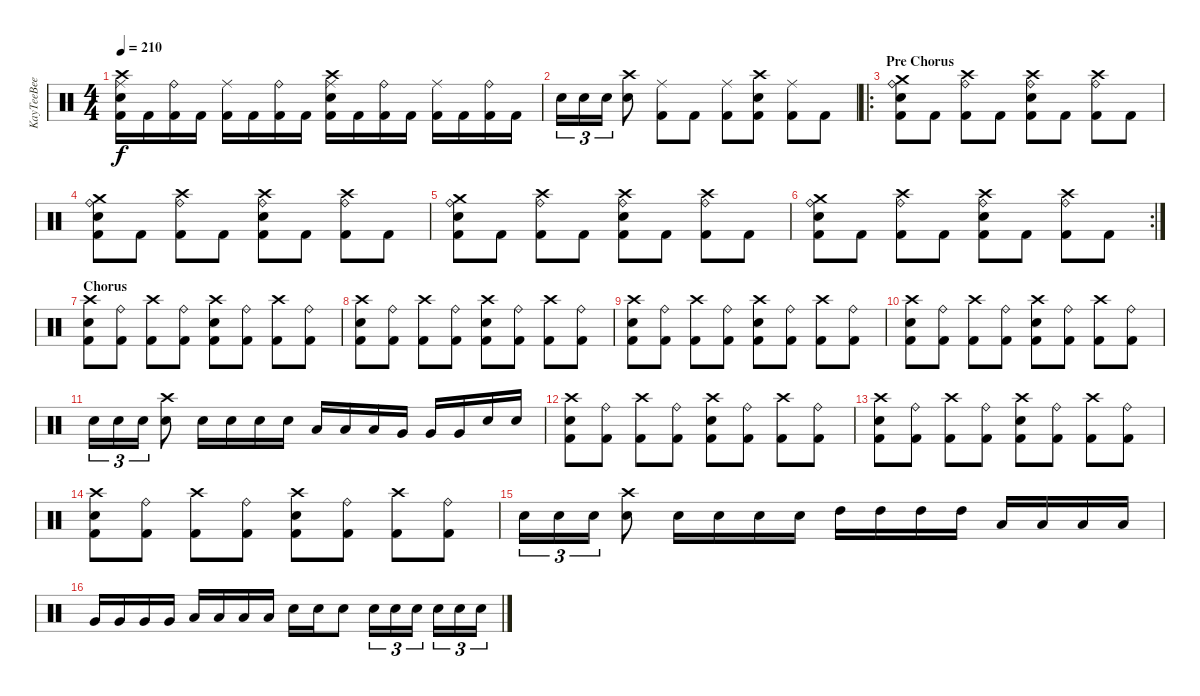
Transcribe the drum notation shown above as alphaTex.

\track ("KayTeeBee" "KayTeeBee") {instrument percussion}
\staff {score}
\articulation defaults
\ts (4 4)
\tempo 210
\clef neutral
\ks c
("Kick (hit) 2" "Electric Snare (hit)" "Crash high (hit)" "Ride (middle)").16{dy f} "Kick (hit) 2".16 ("Kick (hit) 2" "Ride (bell)").16 "Kick (hit) 2".16 ("Kick (hit) 2" "Ride (middle)").16 "Kick (hit) 2".16 ("Kick (hit) 2" "Ride (bell)").16 "Kick (hit) 2".16 ("Kick (hit) 2" "Electric Snare (hit)" "Crash high (hit)" "Ride (middle)").16 "Kick (hit) 2".16 ("Kick (hit) 2" "Ride (bell)").16 "Kick (hit) 2".16 ("Kick (hit) 2" "Ride (middle)").16 "Kick (hit) 2".16 ("Kick (hit) 2" "Ride (bell)").16 "Kick (hit) 2".16 |
"Electric Snare (hit)".16{tu (3 2)} "Electric Snare (hit)".16{tu (3 2)} "Electric Snare (hit)".16{tu (3 2)} ("Crash high (hit)" "Electric Snare (hit)").8 ("Kick (hit) 2" "Ride (middle)").8 "Kick (hit) 2".8 ("Kick (hit) 2" "Ride (middle)").8 ("Kick (hit) 2" "Crash high (hit)" "Electric Snare (hit)").8 ("Kick (hit) 2" "Ride (middle)").8 "Kick (hit) 2".8 |
\ro
\section ("" "Pre Chorus")
("Kick (hit) 2" "Electric Snare (hit)" "Ride (bell)" "Crash medium (hit)").8 "Kick (hit) 2".8 ("Kick (hit) 2" "Crash high (hit)" "Ride (bell)").8 "Kick (hit) 2".8 ("Kick (hit) 2" "Crash high (hit)" "Ride (bell)" "Electric Snare (hit)").8 "Kick (hit) 2".8 ("Kick (hit) 2" "Crash high (hit)" "Ride (bell)").8 "Kick (hit) 2".8 |
("Kick (hit) 2" "Electric Snare (hit)" "Ride (bell)" "Crash medium (hit)").8 "Kick (hit) 2".8 ("Kick (hit) 2" "Crash high (hit)" "Ride (bell)").8 "Kick (hit) 2".8 ("Kick (hit) 2" "Crash high (hit)" "Ride (bell)" "Electric Snare (hit)").8 "Kick (hit) 2".8 ("Kick (hit) 2" "Crash high (hit)" "Ride (bell)").8 "Kick (hit) 2".8 |
("Kick (hit) 2" "Electric Snare (hit)" "Ride (bell)" "Crash medium (hit)").8 "Kick (hit) 2".8 ("Kick (hit) 2" "Crash high (hit)" "Ride (bell)").8 "Kick (hit) 2".8 ("Kick (hit) 2" "Crash high (hit)" "Ride (bell)" "Electric Snare (hit)").8 "Kick (hit) 2".8 ("Kick (hit) 2" "Crash high (hit)" "Ride (bell)").8 "Kick (hit) 2".8 |
\rc 2
("Kick (hit) 2" "Electric Snare (hit)" "Ride (bell)" "Crash medium (hit)").8 "Kick (hit) 2".8 ("Kick (hit) 2" "Crash high (hit)" "Ride (bell)").8 "Kick (hit) 2".8 ("Kick (hit) 2" "Crash high (hit)" "Ride (bell)" "Electric Snare (hit)").8 "Kick (hit) 2".8 ("Kick (hit) 2" "Crash high (hit)" "Ride (bell)").8 "Kick (hit) 2".8 |
\section ("" "Chorus")
("Kick (hit) 2" "Electric Snare (hit)" "Crash high (hit)").8 ("Kick (hit) 2" "Ride (bell)").8 ("Kick (hit) 2" "Crash high (hit)").8 ("Kick (hit) 2" "Ride (bell)").8 ("Kick (hit) 2" "Crash high (hit)" "Electric Snare (hit)").8 ("Kick (hit) 2" "Ride (bell)").8 ("Kick (hit) 2" "Crash high (hit)").8 ("Kick (hit) 2" "Ride (bell)").8 |
("Kick (hit) 2" "Electric Snare (hit)" "Crash high (hit)").8 ("Kick (hit) 2" "Ride (bell)").8 ("Kick (hit) 2" "Crash high (hit)").8 ("Kick (hit) 2" "Ride (bell)").8 ("Kick (hit) 2" "Crash high (hit)" "Electric Snare (hit)").8 ("Kick (hit) 2" "Ride (bell)").8 ("Kick (hit) 2" "Crash high (hit)").8 ("Kick (hit) 2" "Ride (bell)").8 |
("Kick (hit) 2" "Electric Snare (hit)" "Crash high (hit)").8 ("Kick (hit) 2" "Ride (bell)").8 ("Kick (hit) 2" "Crash high (hit)").8 ("Kick (hit) 2" "Ride (bell)").8 ("Kick (hit) 2" "Crash high (hit)" "Electric Snare (hit)").8 ("Kick (hit) 2" "Ride (bell)").8 ("Kick (hit) 2" "Crash high (hit)").8 ("Kick (hit) 2" "Ride (bell)").8 |
("Kick (hit) 2" "Electric Snare (hit)" "Crash high (hit)").8 ("Kick (hit) 2" "Ride (bell)").8 ("Kick (hit) 2" "Crash high (hit)").8 ("Kick (hit) 2" "Ride (bell)").8 ("Kick (hit) 2" "Crash high (hit)" "Electric Snare (hit)").8 ("Kick (hit) 2" "Ride (bell)").8 ("Kick (hit) 2" "Crash high (hit)").8 ("Kick (hit) 2" "Ride (bell)").8 |
"Electric Snare (hit)".16{tu (3 2)} "Electric Snare (hit)".16{tu (3 2)} "Electric Snare (hit)".16{tu (3 2)} ("Electric Snare (hit)" "Crash high (hit)").8 "Electric Snare (hit)".16 "Electric Snare (hit)".16 "Electric Snare (hit)".16 "Electric Snare (hit)".16 "Low Tom (hit)".16 "Low Tom (hit)".16 "Low Tom (hit)".16 "Very Low Tom (hit)".16 "Very Low Tom (hit)".16 "Very Low Tom (hit)".16 "Electric Snare (hit)".16 "Electric Snare (hit)".16 |
("Kick (hit) 2" "Electric Snare (hit)" "Crash high (hit)").8 ("Kick (hit) 2" "Ride (bell)").8 ("Kick (hit) 2" "Crash high (hit)").8 ("Kick (hit) 2" "Ride (bell)").8 ("Kick (hit) 2" "Crash high (hit)" "Electric Snare (hit)").8 ("Kick (hit) 2" "Ride (bell)").8 ("Kick (hit) 2" "Crash high (hit)").8 ("Kick (hit) 2" "Ride (bell)").8 |
("Kick (hit) 2" "Electric Snare (hit)" "Crash high (hit)").8 ("Kick (hit) 2" "Ride (bell)").8 ("Kick (hit) 2" "Crash high (hit)").8 ("Kick (hit) 2" "Ride (bell)").8 ("Kick (hit) 2" "Crash high (hit)" "Electric Snare (hit)").8 ("Kick (hit) 2" "Ride (bell)").8 ("Kick (hit) 2" "Crash high (hit)").8 ("Kick (hit) 2" "Ride (bell)").8 |
("Kick (hit) 2" "Electric Snare (hit)" "Crash high (hit)").8 ("Kick (hit) 2" "Ride (bell)").8 ("Kick (hit) 2" "Crash high (hit)").8 ("Kick (hit) 2" "Ride (bell)").8 ("Kick (hit) 2" "Crash high (hit)" "Electric Snare (hit)").8 ("Kick (hit) 2" "Ride (bell)").8 ("Kick (hit) 2" "Crash high (hit)").8 ("Kick (hit) 2" "Ride (bell)").8 |
"Electric Snare (hit)".16{tu (3 2)} "Electric Snare (hit)".16{tu (3 2)} "Electric Snare (hit)".16{tu (3 2)} ("Electric Snare (hit)" "Crash high (hit)").8 "Electric Snare (hit)".16 "Electric Snare (hit)".16 "Electric Snare (hit)".16 "Electric Snare (hit)".16 "High Tom (hit)".16 "High Tom (hit)".16 "High Tom (hit)".16 "High Tom (hit)".16 "Low Tom (hit)".16 "Low Tom (hit)".16 "Low Tom (hit)".16 "Low Tom (hit)".16 |
"Very Low Tom (hit)".16 "Very Low Tom (hit)".16 "Very Low Tom (hit)".16 "Very Low Tom (hit)".16 "Low Floor Tom (hit)".16 "Low Floor Tom (hit)".16 "Low Floor Tom (hit)".16 "Low Floor Tom (hit)".16 "Electric Snare (hit)".16 "Electric Snare (hit)".16 "Electric Snare (hit)".8 "Electric Snare (hit)".16{tu (3 2)} "Electric Snare (hit)".16{tu (3 2)} "Electric Snare (hit)".16{tu (3 2)} "Electric Snare (hit)".16{tu (3 2)} "Electric Snare (hit)".16{tu (3 2)} "Electric Snare (hit)".16{tu (3 2)}
